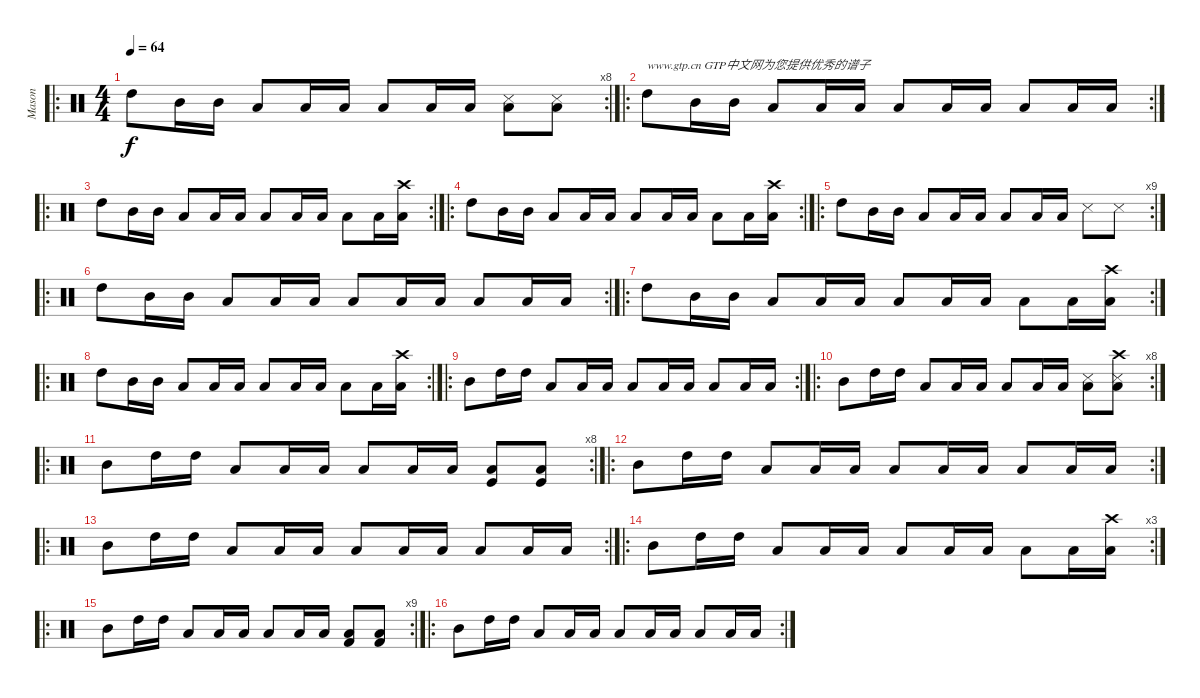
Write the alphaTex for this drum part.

\track ("Mason" "Mason") {instrument percussion}
\staff {score}
\articulation defaults
\ro
\rc 8
\ts (4 4)
\tempo 64
\clef neutral
\ks c "High Tom (hit)".8{dy f} "Mid Tom (hit)".16 "Mid Tom (hit)".16 "Low Tom (hit)".8 "Low Tom (hit)".16 "Low Tom (hit)".16 "Low Floor Tom (hit)".8 "Low Floor Tom (hit)".16 "Low Floor Tom (hit)".16
("Snare (side stick) 3" "Low Floor Tom (hit)").8 ("Snare (side stick) 3" "Low Floor Tom (hit)").8 |
\ro
\rc 2 "High Tom (hit)".8{txt "www.gtp.cn GTP中文网为您提供优秀的谱子"} "Mid Tom (hit)".16 "Mid Tom (hit)".16 "Low Tom (hit)".8 "Low Tom (hit)".16 "Low Tom (hit)".16 "Low Floor Tom (hit)".8 "Low Floor Tom (hit)".16 "Low Floor Tom (hit)".16 "Low Floor Tom (hit)".8 "Low Tom (hit)".16 "Low Tom (hit)".16
|
\ro
\rc 2 "High Tom (hit)".8 "Mid Tom (hit)".16 "Mid Tom (hit)".16 "Low Tom (hit)".8 "Low Tom (hit)".16 "Low Tom (hit)".16 "Low Floor Tom (hit)".8 "Low Floor Tom (hit)".16 "Low Floor Tom (hit)".16 "Low Floor Tom (hit)".8 "Low Tom (hit)".16
("Low Tom (hit)" "Crash high (hit)").16 |
\ro
\rc 2 "High Tom (hit)".8 "Mid Tom (hit)".16 "Mid Tom (hit)".16 "Low Tom (hit)".8 "Low Tom (hit)".16 "Low Tom (hit)".16 "Low Floor Tom (hit)".8 "Low Floor Tom (hit)".16 "Low Floor Tom (hit)".16 "Low Floor Tom (hit)".8 "Low Tom (hit)".16
("Low Tom (hit)" "Crash high (hit)").16 |
\ro
\rc 9 "High Tom (hit)".8 "Mid Tom (hit)".16 "Mid Tom (hit)".16 "Low Tom (hit)".8 "Low Tom (hit)".16 "Low Tom (hit)".16 "Low Floor Tom (hit)".8 "Low Floor Tom (hit)".16 "Low Floor Tom (hit)".16 "Snare (side stick) 3".8 "Snare (side stick) 3".8
|
\ro
\rc 2 "High Tom (hit)".8 "Mid Tom (hit)".16 "Mid Tom (hit)".16 "Low Tom (hit)".8 "Low Tom (hit)".16 "Low Tom (hit)".16 "Low Floor Tom (hit)".8 "Low Floor Tom (hit)".16 "Low Floor Tom (hit)".16 "Low Floor Tom (hit)".8 "Low Tom (hit)".16 "Low Tom (hit)".16
|
\ro
\rc 2 "High Tom (hit)".8 "Mid Tom (hit)".16 "Mid Tom (hit)".16 "Low Tom (hit)".8 "Low Tom (hit)".16 "Low Tom (hit)".16 "Low Floor Tom (hit)".8 "Low Floor Tom (hit)".16 "Low Floor Tom (hit)".16 "Low Floor Tom (hit)".8 "Low Tom (hit)".16
("Low Tom (hit)" "Crash high (hit)").16 |
\ro
\rc 2 "High Tom (hit)".8 "Mid Tom (hit)".16 "Mid Tom (hit)".16 "Low Tom (hit)".8 "Low Tom (hit)".16 "Low Tom (hit)".16 "Low Floor Tom (hit)".8 "Low Floor Tom (hit)".16 "Low Floor Tom (hit)".16 "Low Floor Tom (hit)".8 "Low Tom (hit)".16
("Low Tom (hit)" "Crash high (hit)").16 |
\ro
\rc 2 "Mid Tom (hit)".8 "High Tom (hit)".16 "High Tom (hit)".16 "Low Tom (hit)".8 "Low Tom (hit)".16 "Low Tom (hit)".16 "Low Floor Tom (hit)".8 "Low Floor Tom (hit)".16 "Low Floor Tom (hit)".16 "Low Floor Tom (hit)".8 "Low Tom (hit)".16 "Low Tom (hit)".16
|
\ro
\rc 8 "Mid Tom (hit)".8 "High Tom (hit)".16 "High Tom (hit)".16 "Low Tom (hit)".8 "Low Tom (hit)".16 "Low Tom (hit)".16 "Low Floor Tom (hit)".8 "Low Floor Tom (hit)".16 "Low Floor Tom (hit)".16
("Snare (side stick) 3" "Low Floor Tom (hit)").8 ("Snare (side stick) 3" "Low Floor Tom (hit)" "Crash high (hit)").8 |
\ro
\rc 8 "Mid Tom (hit)".8 "High Tom (hit)".16 "High Tom (hit)".16 "Low Tom (hit)".8 "Low Tom (hit)".16 "Low Tom (hit)".16 "Low Floor Tom (hit)".8 "Low Floor Tom (hit)".16 "Low Floor Tom (hit)".16
("Kick (hit)" "Low Floor Tom (hit)").8 ("Kick (hit)" "Low Floor Tom (hit)").8 |
\ro
\rc 2 "Mid Tom (hit)".8 "High Tom (hit)".16 "High Tom (hit)".16 "Low Tom (hit)".8 "Low Tom (hit)".16 "Low Tom (hit)".16 "Low Floor Tom (hit)".8 "Low Floor Tom (hit)".16 "Low Floor Tom (hit)".16 "Low Floor Tom (hit)".8 "Low Tom (hit)".16 "Low Tom (hit)".16
|
\ro
\rc 2 "Mid Tom (hit)".8 "High Tom (hit)".16 "High Tom (hit)".16 "Low Tom (hit)".8 "Low Tom (hit)".16 "Low Tom (hit)".16 "Low Floor Tom (hit)".8 "Low Floor Tom (hit)".16 "Low Floor Tom (hit)".16 "Low Floor Tom (hit)".8 "Low Tom (hit)".16 "Low Tom (hit)".16
|
\ro
\rc 3 "Mid Tom (hit)".8 "High Tom (hit)".16 "High Tom (hit)".16 "Low Tom (hit)".8 "Low Tom (hit)".16 "Low Tom (hit)".16 "Low Floor Tom (hit)".8 "Low Floor Tom (hit)".16 "Low Floor Tom (hit)".16 "Low Floor Tom (hit)".8 "Low Tom (hit)".16
("Low Tom (hit)" "Crash high (hit)").16 |
\ro
\rc 9 "Mid Tom (hit)".8 "High Tom (hit)".16 "High Tom (hit)".16 "Low Tom (hit)".8 "Low Tom (hit)".16 "Low Tom (hit)".16 "Low Floor Tom (hit)".8 "Low Floor Tom (hit)".16 "Low Floor Tom (hit)".16
("Kick (hit) 2" "Low Floor Tom (hit)").8 ("Kick (hit) 2" "Low Floor Tom (hit)").8 |
\ro
\rc 2 "Mid Tom (hit)".8 "High Tom (hit)".16 "High Tom (hit)".16 "Low Tom (hit)".8 "Low Tom (hit)".16 "Low Tom (hit)".16 "Low Floor Tom (hit)".8 "Low Floor Tom (hit)".16 "Low Floor Tom (hit)".16 "Low Floor Tom (hit)".8 "Low Tom (hit)".16 "Low Tom (hit)".16
